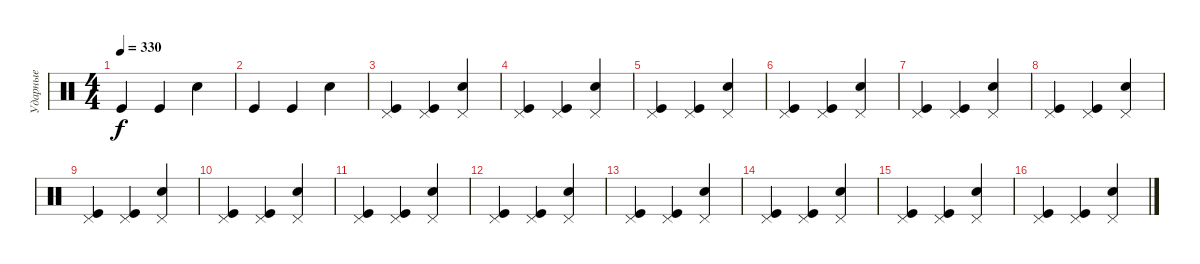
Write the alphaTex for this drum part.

\track ("Ударные" "Ударные") {instrument percussion}
\staff {score}
\articulation defaults
\ts (4 4)
\tempo 330
\clef neutral
\ks c "Kick (hit)".4{dy f} "Kick (hit)".4 "Snare (hit) 2".4
|
"Kick (hit)".4 "Kick (hit)".4 "Snare (hit) 2".4 |
("Kick (hit)" "Pedal Hi-Hat (hit)").4 ("Kick (hit)" "Pedal Hi-Hat (hit)").4 ("Snare (hit) 2" "Pedal Hi-Hat (hit)").4 |
("Kick (hit)" "Pedal Hi-Hat (hit)").4 ("Kick (hit)" "Pedal Hi-Hat (hit)").4 ("Snare (hit) 2" "Pedal Hi-Hat (hit)").4 |
("Kick (hit)" "Pedal Hi-Hat (hit)").4 ("Kick (hit)" "Pedal Hi-Hat (hit)").4 ("Snare (hit) 2" "Pedal Hi-Hat (hit)").4 |
("Kick (hit)" "Pedal Hi-Hat (hit)").4 ("Kick (hit)" "Pedal Hi-Hat (hit)").4 ("Snare (hit) 2" "Pedal Hi-Hat (hit)").4 |
("Kick (hit)" "Pedal Hi-Hat (hit)").4 ("Kick (hit)" "Pedal Hi-Hat (hit)").4 ("Snare (hit) 2" "Pedal Hi-Hat (hit)").4 |
("Kick (hit)" "Pedal Hi-Hat (hit)").4 ("Kick (hit)" "Pedal Hi-Hat (hit)").4 ("Snare (hit) 2" "Pedal Hi-Hat (hit)").4 |
("Kick (hit)" "Pedal Hi-Hat (hit)").4 ("Kick (hit)" "Pedal Hi-Hat (hit)").4 ("Snare (hit) 2" "Pedal Hi-Hat (hit)").4 |
("Kick (hit)" "Pedal Hi-Hat (hit)").4 ("Kick (hit)" "Pedal Hi-Hat (hit)").4 ("Snare (hit) 2" "Pedal Hi-Hat (hit)").4 |
("Kick (hit)" "Pedal Hi-Hat (hit)").4 ("Kick (hit)" "Pedal Hi-Hat (hit)").4 ("Snare (hit) 2" "Pedal Hi-Hat (hit)").4 |
("Kick (hit)" "Pedal Hi-Hat (hit)").4 ("Kick (hit)" "Pedal Hi-Hat (hit)").4 ("Snare (hit) 2" "Pedal Hi-Hat (hit)").4 |
("Kick (hit)" "Pedal Hi-Hat (hit)").4 ("Kick (hit)" "Pedal Hi-Hat (hit)").4 ("Snare (hit) 2" "Pedal Hi-Hat (hit)").4 |
("Kick (hit)" "Pedal Hi-Hat (hit)").4 ("Kick (hit)" "Pedal Hi-Hat (hit)").4 ("Snare (hit) 2" "Pedal Hi-Hat (hit)").4 |
("Kick (hit)" "Pedal Hi-Hat (hit)").4 ("Kick (hit)" "Pedal Hi-Hat (hit)").4 ("Snare (hit) 2" "Pedal Hi-Hat (hit)").4 |
("Kick (hit)" "Pedal Hi-Hat (hit)").4 ("Kick (hit)" "Pedal Hi-Hat (hit)").4 ("Snare (hit) 2" "Pedal Hi-Hat (hit)").4
